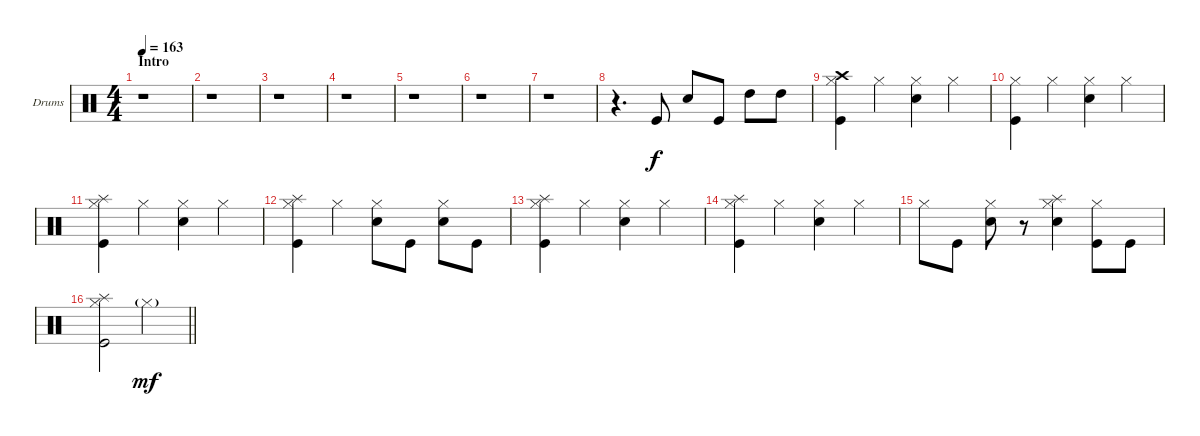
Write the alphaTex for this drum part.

\bracketExtendMode groupsimilarinstruments
\firstSystemTrackNameOrientation horizontal
\otherSystemsTrackNameOrientation horizontal
\track ("Drumkit" "Drums") {instrument percussion}
\staff {score}
\articulation defaults
\ts (4 4)
\section ("" "Intro")
\tempo 163
\clef neutral
\scale
0.472222
\ks c
r.1{dy f} |
\beaming (8 2 2 2 2)
\scale
0.263889 r.1 |
\scale
0.263889 r.1 |
\scale
0.333333 r.1 |
\scale
0.333333 r.1 |
\scale
0.333333 r.1 |
\scale
0.333333 r.1 |
\scale
0.333333 r.4{d} "Kick (hit)".8 "Snare (hit) 2".8 "Kick (hit)".8 "High Tom (hit)".8 "High Tom (hit)".8 |
\scale
0.333333 ("Crash high (hit)" "Kick (hit)" "Hi-Hat (closed)").4 "Hi-Hat (closed)".4 ("Snare (hit) 2" "Hi-Hat (closed)").4 "Hi-Hat (closed)".4 |
\scale
0.333333 ("Kick (hit)" "Hi-Hat (closed)").4 "Hi-Hat (closed)".4 ("Snare (hit) 2" "Hi-Hat (closed)").4 "Hi-Hat (closed)".4 |
\scale
0.333333 ("Splash (hit)" "Kick (hit)" "Hi-Hat (closed)").4 "Hi-Hat (closed)".4 ("Snare (hit) 2" "Hi-Hat (closed)").4 "Hi-Hat (closed)".4 |
\scale
0.333333 ("Splash (hit)" "Kick (hit)" "Hi-Hat (closed)").4 "Hi-Hat (closed)".4 ("Snare (hit) 2" "Hi-Hat (closed)").8 "Kick (hit)".8 ("Snare (hit) 2" "Hi-Hat (closed)").8 "Kick (hit)".8 |
\scale
0.333333 ("Splash (hit)" "Kick (hit)" "Hi-Hat (closed)").4 "Hi-Hat (closed)".4 ("Snare (hit) 2" "Hi-Hat (closed)").4 "Hi-Hat (closed)".4 |
\scale
0.333333 ("Splash (hit)" "Kick (hit)" "Hi-Hat (closed)").4 "Hi-Hat (closed)".4 ("Snare (hit) 2" "Hi-Hat (closed)").4 "Hi-Hat (closed)".4 |
\scale
0.333333 "Hi-Hat (closed)".8 "Kick (hit)".8 ("Snare (hit) 2" "Hi-Hat (closed)").8 r.8 ("Splash (hit)" "Snare (hit) 2" "Hi-Hat (closed)").4 ("Kick (hit)" "Hi-Hat (closed)").8 "Kick (hit)".8 |
\scale
0.333333
\barLineRight lightlight
("Splash (hit)" "Kick (hit)" "Hi-Hat (closed)").2 "Hi-Hat (closed)"{g}.2{dy mf}
